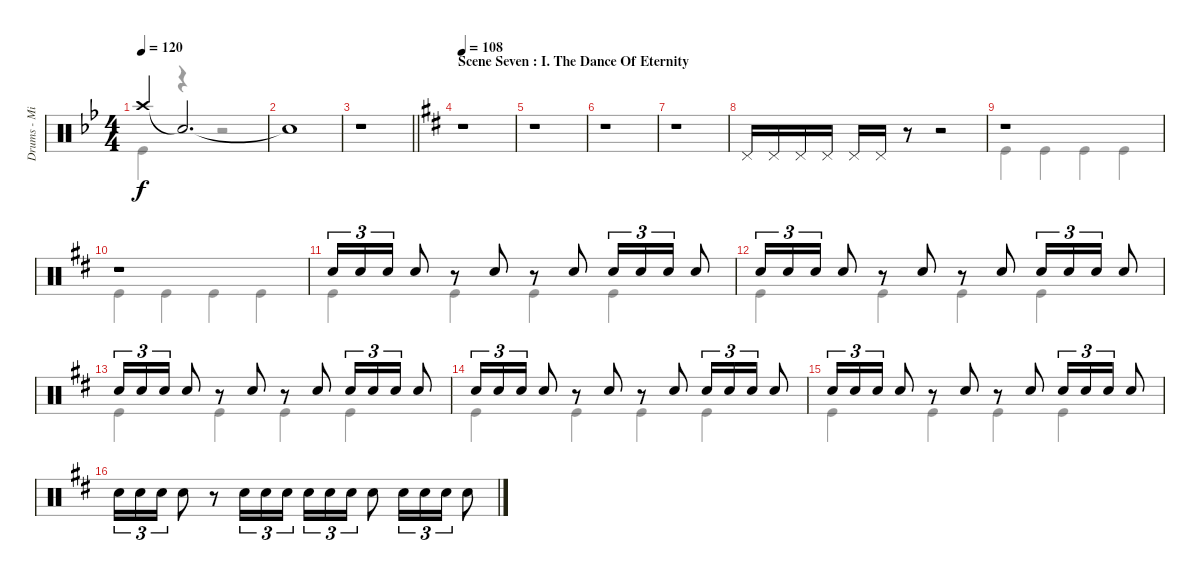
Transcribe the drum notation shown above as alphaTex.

\track ("Drums - Mike Portnoy" "Drums - Mi") {instrument percussion}
\staff {score}
\articulation defaults
\voice
\ts (4 4)
\tempo 120
\clef neutral
\ks bb "Crash high (hit)".4{dy f} "Snare (hit)"{t}.2{d}
|
"Snare (hit)"{t}.1 |
\barLineRight lightlight
r.1 |
\section ("" "Scene Seven : I. The Dance Of Eternity")
\tempo 108
\ks d
r.1 |
r.1 |
r.1 |
r.1 |
"Pedal Hi-Hat (hit)".16 "Pedal Hi-Hat (hit)".16 "Pedal Hi-Hat (hit)".16 "Pedal Hi-Hat (hit)".16 "Pedal Hi-Hat (hit)".16 "Pedal Hi-Hat (hit)".16 r.8 r.2 |
r.1 |
r.1 |
"Snare (hit) 2".16{tu (3 2)} "Snare (hit) 2".16{tu (3 2)} "Snare (hit) 2".16{tu (3 2)} "Snare (hit) 2".8 r.8 "Snare (hit) 2".8 r.8 "Snare (hit) 2".8 "Snare (hit) 2".16{tu (3 2)} "Snare (hit) 2".16{tu (3 2)} "Snare (hit) 2".16{tu (3 2)} "Snare (hit) 2".8 |
"Snare (hit) 2".16{tu (3 2)} "Snare (hit) 2".16{tu (3 2)} "Snare (hit) 2".16{tu (3 2)} "Snare (hit) 2".8 r.8 "Snare (hit) 2".8 r.8 "Snare (hit) 2".8 "Snare (hit) 2".16{tu (3 2)} "Snare (hit) 2".16{tu (3 2)} "Snare (hit) 2".16{tu (3 2)} "Snare (hit) 2".8 |
"Snare (hit) 2".16{tu (3 2)} "Snare (hit) 2".16{tu (3 2)} "Snare (hit) 2".16{tu (3 2)} "Snare (hit) 2".8 r.8 "Snare (hit) 2".8 r.8 "Snare (hit) 2".8 "Snare (hit) 2".16{tu (3 2)} "Snare (hit) 2".16{tu (3 2)} "Snare (hit) 2".16{tu (3 2)} "Snare (hit) 2".8 |
"Snare (hit) 2".16{tu (3 2)} "Snare (hit) 2".16{tu (3 2)} "Snare (hit) 2".16{tu (3 2)} "Snare (hit) 2".8 r.8 "Snare (hit) 2".8 r.8 "Snare (hit) 2".8 "Snare (hit) 2".16{tu (3 2)} "Snare (hit) 2".16{tu (3 2)} "Snare (hit) 2".16{tu (3 2)} "Snare (hit) 2".8 |
"Snare (hit) 2".16{tu (3 2)} "Snare (hit) 2".16{tu (3 2)} "Snare (hit) 2".16{tu (3 2)} "Snare (hit) 2".8 r.8 "Snare (hit) 2".8 r.8 "Snare (hit) 2".8 "Snare (hit) 2".16{tu (3 2)} "Snare (hit) 2".16{tu (3 2)} "Snare (hit) 2".16{tu (3 2)} "Snare (hit) 2".8 |
"Snare (hit) 2".16{tu (3 2)} "Snare (hit) 2".16{tu (3 2)} "Snare (hit) 2".16{tu (3 2)} "Snare (hit) 2".8 r.8 "Snare (hit) 2".16{tu (3 2)} "Snare (hit) 2".16{tu (3 2)} "Snare (hit) 2".16{tu (3 2)} "Snare (hit) 2".16{tu (3 2)} "Snare (hit) 2".16{tu (3 2)} "Snare (hit) 2".16{tu (3 2)} "Snare (hit) 2".8 "Snare (hit) 2".16{tu (3 2)} "Snare (hit) 2".16{tu (3 2)} "Snare (hit) 2".16{tu (3 2)} "Snare (hit) 2".8
\voice
\clef neutral
\ottava regular
\simile none
\ks bb "Kick (hit)".4{dy f}
r.4 r.2 |
|
\barLineRight lightlight
|
\ks d
|
|
|
|
|
"Kick (hit)".4 "Kick (hit)".4 "Kick (hit)".4 "Kick (hit)".4 |
"Kick (hit)".4 "Kick (hit)".4 "Kick (hit)".4 "Kick (hit)".4 |
"Kick (hit)".4 "Kick (hit)".4 "Kick (hit)".4 "Kick (hit)".4 |
"Kick (hit)".4 "Kick (hit)".4 "Kick (hit)".4 "Kick (hit)".4 |
"Kick (hit)".4 "Kick (hit)".4 "Kick (hit)".4 "Kick (hit)".4 |
"Kick (hit)".4 "Kick (hit)".4 "Kick (hit)".4 "Kick (hit)".4 |
"Kick (hit)".4 "Kick (hit)".4 "Kick (hit)".4 "Kick (hit)".4 |
